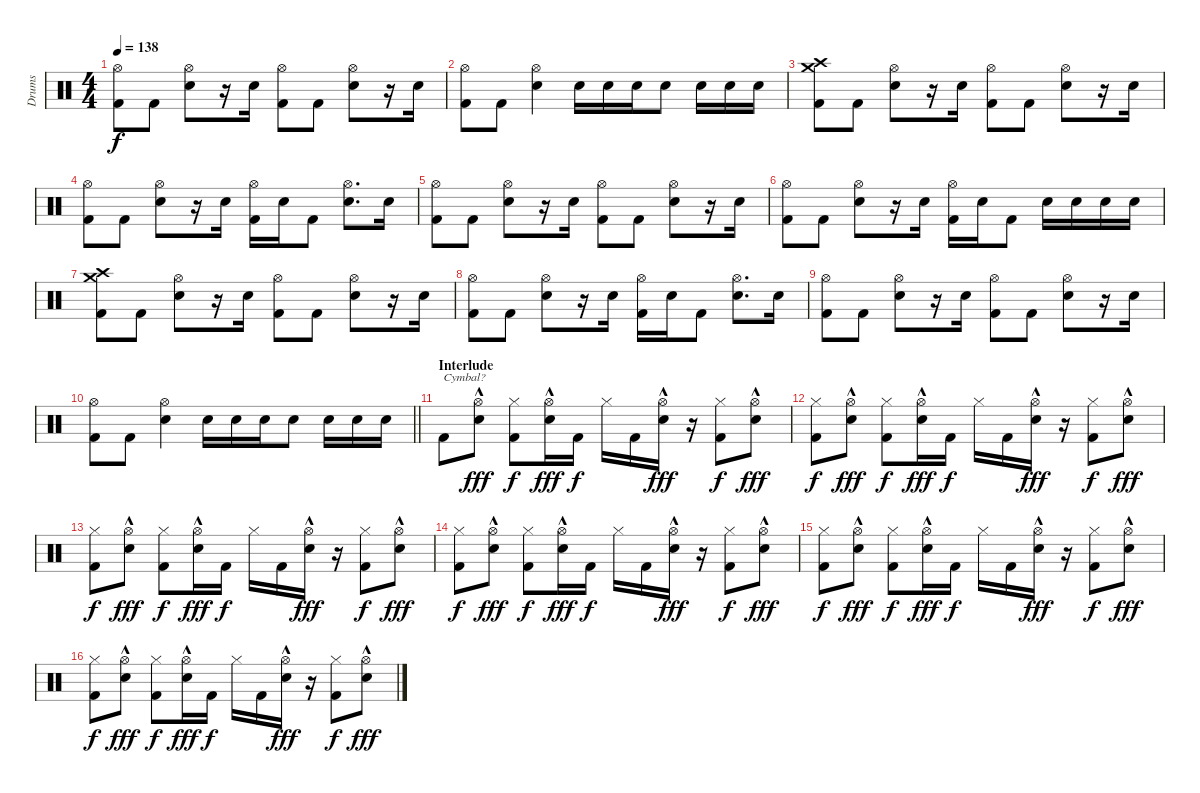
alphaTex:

\track ("Drums" "Drums") {instrument percussion}
\staff {score}
\articulation defaults
\ts (4 4)
\tempo 138
\clef neutral
\ks c
("Hi-Hat (open)" "Kick (hit) 2").8{dy f} "Kick (hit) 2".8 ("Hi-Hat (open)" "Electric Snare (hit)").8 r.16 "Electric Snare (hit)".16 ("Hi-Hat (open)" "Kick (hit) 2").8 "Kick (hit) 2".8 ("Hi-Hat (open)" "Electric Snare (hit)").8 r.16 "Electric Snare (hit)".16 |
("Hi-Hat (open)" "Kick (hit) 2").8 "Kick (hit) 2".8 ("Hi-Hat (open)" "Electric Snare (hit)").4 "Electric Snare (hit)".16 "Electric Snare (hit)".16 "Electric Snare (hit)".16 "Electric Snare (hit)".8 "Electric Snare (hit)".16 "Electric Snare (hit)".16 "Electric Snare (hit)".16 |
("Crash high (hit)" "Crash medium (hit)" "Kick (hit) 2").8 "Kick (hit) 2".8 ("Hi-Hat (open)" "Electric Snare (hit)").8 r.16 "Electric Snare (hit)".16 ("Hi-Hat (open)" "Kick (hit) 2").8 "Kick (hit) 2".8 ("Hi-Hat (open)" "Electric Snare (hit)").8 r.16 "Electric Snare (hit)".16 |
("Hi-Hat (open)" "Kick (hit) 2").8 "Kick (hit) 2".8 ("Hi-Hat (open)" "Electric Snare (hit)").8 r.16 "Electric Snare (hit)".16 ("Hi-Hat (open)" "Kick (hit) 2").16 "Electric Snare (hit)".16 "Kick (hit) 2".8 ("Hi-Hat (open)" "Electric Snare (hit)").8{d} "Electric Snare (hit)".16 |
("Hi-Hat (open)" "Kick (hit) 2").8 "Kick (hit) 2".8 ("Hi-Hat (open)" "Electric Snare (hit)").8 r.16 "Electric Snare (hit)".16 ("Hi-Hat (open)" "Kick (hit) 2").8 "Kick (hit) 2".8 ("Hi-Hat (open)" "Electric Snare (hit)").8 r.16 "Electric Snare (hit)".16 |
("Hi-Hat (open)" "Kick (hit) 2").8 "Kick (hit) 2".8 ("Hi-Hat (open)" "Electric Snare (hit)").8 r.16 "Electric Snare (hit)".16 ("Hi-Hat (open)" "Kick (hit) 2").16 "Electric Snare (hit)".16 "Kick (hit) 2".8 "Electric Snare (hit)".16 "Electric Snare (hit)".16 "Electric Snare (hit)".16 "Electric Snare (hit)".16 |
("Crash high (hit)" "Crash medium (hit)" "Kick (hit) 2").8 "Kick (hit) 2".8 ("Hi-Hat (open)" "Electric Snare (hit)").8 r.16 "Electric Snare (hit)".16 ("Hi-Hat (open)" "Kick (hit) 2").8 "Kick (hit) 2".8 ("Hi-Hat (open)" "Electric Snare (hit)").8 r.16 "Electric Snare (hit)".16 |
("Hi-Hat (open)" "Kick (hit) 2").8 "Kick (hit) 2".8 ("Hi-Hat (open)" "Electric Snare (hit)").8 r.16 "Electric Snare (hit)".16 ("Hi-Hat (open)" "Kick (hit) 2").16 "Electric Snare (hit)".16 "Kick (hit) 2".8 ("Hi-Hat (open)" "Electric Snare (hit)").8{d} "Electric Snare (hit)".16 |
("Hi-Hat (open)" "Kick (hit) 2").8 "Kick (hit) 2".8 ("Hi-Hat (open)" "Electric Snare (hit)").8 r.16 "Electric Snare (hit)".16 ("Hi-Hat (open)" "Kick (hit) 2").8 "Kick (hit) 2".8 ("Hi-Hat (open)" "Electric Snare (hit)").8 r.16 "Electric Snare (hit)".16 |
\barLineRight lightlight
("Hi-Hat (open)" "Kick (hit) 2").8 "Kick (hit) 2".8 ("Hi-Hat (open)" "Electric Snare (hit)").4 "Electric Snare (hit)".16 "Electric Snare (hit)".16 "Electric Snare (hit)".16 "Electric Snare (hit)".8 "Electric Snare (hit)".16 "Electric Snare (hit)".16 "Electric Snare (hit)".16 |
\section ("" "Interlude")
"Kick (hit) 2".8{txt "Cymbal?"} ("Hi-Hat (open)"{hac} "Electric Snare (hit)").8{dy fff} ("Hi-Hat (closed)" "Kick (hit) 2").8{dy f} ("Hi-Hat (open)"{hac} "Electric Snare (hit)").16{dy fff} "Kick (hit) 2".16{dy f} "Hi-Hat (closed)".16 "Kick (hit) 2".16 ("Hi-Hat (open)"{hac} "Electric Snare (hit)").16{dy fff} r.16 ("Hi-Hat (closed)" "Kick (hit) 2").8{dy f} ("Hi-Hat (open)"{hac} "Electric Snare (hit)").8{dy fff} |
("Hi-Hat (closed)" "Kick (hit) 2").8{dy f} ("Hi-Hat (open)"{hac} "Electric Snare (hit)").8{dy fff} ("Hi-Hat (closed)" "Kick (hit) 2").8{dy f} ("Hi-Hat (open)"{hac} "Electric Snare (hit)").16{dy fff} "Kick (hit) 2".16{dy f} "Hi-Hat (closed)".16 "Kick (hit) 2".16 ("Hi-Hat (open)"{hac} "Electric Snare (hit)").16{dy fff} r.16 ("Hi-Hat (closed)" "Kick (hit) 2").8{dy f} ("Hi-Hat (open)"{hac} "Electric Snare (hit)").8{dy fff} |
("Hi-Hat (closed)" "Kick (hit) 2").8{dy f} ("Hi-Hat (open)"{hac} "Electric Snare (hit)").8{dy fff} ("Hi-Hat (closed)" "Kick (hit) 2").8{dy f} ("Hi-Hat (open)"{hac} "Electric Snare (hit)").16{dy fff} "Kick (hit) 2".16{dy f} "Hi-Hat (closed)".16 "Kick (hit) 2".16 ("Hi-Hat (open)"{hac} "Electric Snare (hit)").16{dy fff} r.16 ("Hi-Hat (closed)" "Kick (hit) 2").8{dy f} ("Hi-Hat (open)"{hac} "Electric Snare (hit)").8{dy fff} |
("Hi-Hat (closed)" "Kick (hit) 2").8{dy f} ("Hi-Hat (open)"{hac} "Electric Snare (hit)").8{dy fff} ("Hi-Hat (closed)" "Kick (hit) 2").8{dy f} ("Hi-Hat (open)"{hac} "Electric Snare (hit)").16{dy fff} "Kick (hit) 2".16{dy f} "Hi-Hat (closed)".16 "Kick (hit) 2".16 ("Hi-Hat (open)"{hac} "Electric Snare (hit)").16{dy fff} r.16 ("Hi-Hat (closed)" "Kick (hit) 2").8{dy f} ("Hi-Hat (open)"{hac} "Electric Snare (hit)").8{dy fff} |
("Hi-Hat (closed)" "Kick (hit) 2").8{dy f} ("Hi-Hat (open)"{hac} "Electric Snare (hit)").8{dy fff} ("Hi-Hat (closed)" "Kick (hit) 2").8{dy f} ("Hi-Hat (open)"{hac} "Electric Snare (hit)").16{dy fff} "Kick (hit) 2".16{dy f} "Hi-Hat (closed)".16 "Kick (hit) 2".16 ("Hi-Hat (open)"{hac} "Electric Snare (hit)").16{dy fff} r.16 ("Hi-Hat (closed)" "Kick (hit) 2").8{dy f} ("Hi-Hat (open)"{hac} "Electric Snare (hit)").8{dy fff} |
("Hi-Hat (closed)" "Kick (hit) 2").8{dy f} ("Hi-Hat (open)"{hac} "Electric Snare (hit)").8{dy fff} ("Hi-Hat (closed)" "Kick (hit) 2").8{dy f} ("Hi-Hat (open)"{hac} "Electric Snare (hit)").16{dy fff} "Kick (hit) 2".16{dy f} "Hi-Hat (closed)".16 "Kick (hit) 2".16 ("Hi-Hat (open)"{hac} "Electric Snare (hit)").16{dy fff} r.16 ("Hi-Hat (closed)" "Kick (hit) 2").8{dy f} ("Hi-Hat (open)"{hac} "Electric Snare (hit)").8{dy fff}
